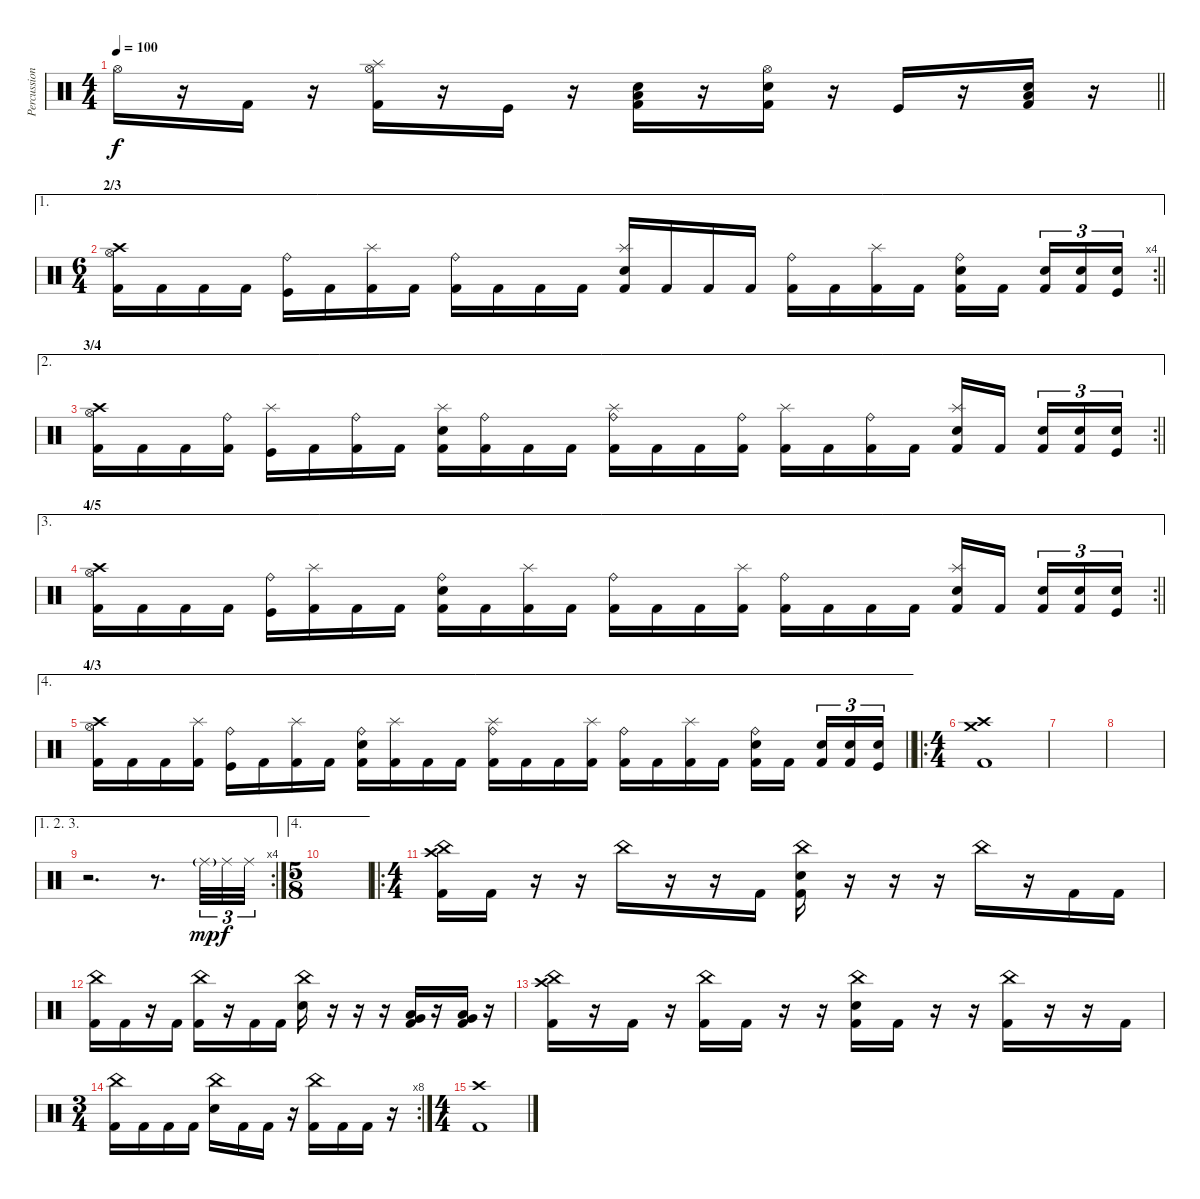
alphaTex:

\track ("Percussion" "Percussion") {mute instrument percussion}
\staff {score}
\articulation defaults
\ts (4 4)
\tempo 100
\clef neutral
\barLineRight lightlight
\ks c "Hi-Hat (open)".16{dy f}
r.16 "Kick (hit) 2".16 r.16 ("Hi-Hat (open)" "Splash (hit)" "Kick (hit) 2").16 r.16 "Kick (hit)".16 r.16 ("Low Floor Tom (hit)" "Electric Snare (hit)" "Kick (hit) 2").16 r.16 ("Hi-Hat (open)" "Electric Snare (hit)" "Kick (hit) 2").16 r.16 "Kick (hit)".16 r.16 ("Low Floor Tom (hit)" "Electric Snare (hit)" "Kick (hit) 2").16 r.16 |
\ae 1
\rc 4
\ts (6 4)
\section ("" "2/3")
\barLineRight lightlight
("Hi-Hat (open)" "Crash high (hit)" "Kick (hit) 2").16 "Kick (hit) 2".16 "Kick (hit) 2".16 "Kick (hit) 2".16 ("Ride (bell)" "Kick (hit)").16 "Kick (hit) 2".16 ("Splash (hit)" "Kick (hit) 2").16 "Kick (hit) 2".16 ("Ride (bell)" "Kick (hit) 2").16 "Kick (hit) 2".16 "Kick (hit) 2".16 "Kick (hit) 2".16 ("Splash (hit)" "Electric Snare (hit)" "Kick (hit) 2").16 "Kick (hit) 2".16 "Kick (hit) 2".16 "Kick (hit) 2".16 ("Ride (bell)" "Kick (hit) 2").16 "Kick (hit) 2".16 ("Splash (hit)" "Kick (hit) 2").16 "Kick (hit) 2".16 ("Ride (bell)" "Electric Snare (hit)" "Kick (hit) 2").16 "Kick (hit) 2".16{beam splitsecondary} ("Electric Snare (hit)" "Kick (hit) 2").16{tu (3 2)} ("Electric Snare (hit)" "Kick (hit) 2").16{tu (3 2)} ("Electric Snare (hit)" "Kick (hit)").16{tu (3 2)} |
\ae 2
\rc 2
\section ("" "3/4")
\barLineRight lightlight
("Hi-Hat (open)" "Crash high (hit)" "Kick (hit) 2").16 "Kick (hit) 2".16 "Kick (hit) 2".16 ("Ride (bell)" "Kick (hit) 2").16 ("Splash (hit)" "Kick (hit)").16 "Kick (hit) 2".16 ("Ride (bell)" "Kick (hit) 2").16 "Kick (hit) 2".16 ("Splash (hit)" "Electric Snare (hit)" "Kick (hit) 2").16 ("Ride (bell)" "Kick (hit) 2").16 "Kick (hit) 2".16 "Kick (hit) 2".16 ("Splash (hit)" "Ride (bell)" "Kick (hit) 2").16 "Kick (hit) 2".16 "Kick (hit) 2".16 ("Ride (bell)" "Kick (hit) 2").16 ("Splash (hit)" "Kick (hit) 2").16 "Kick (hit) 2".16 ("Ride (bell)" "Kick (hit) 2").16 "Kick (hit) 2".16 ("Splash (hit)" "Electric Snare (hit)" "Kick (hit) 2").16 "Kick (hit) 2".16{beam splitsecondary} ("Electric Snare (hit)" "Kick (hit) 2").16{tu (3 2)} ("Electric Snare (hit)" "Kick (hit) 2").16{tu (3 2)} ("Electric Snare (hit)" "Kick (hit)").16{tu (3 2)} |
\ae 3
\rc 2
\section ("" "4/5")
\barLineRight lightlight
("Hi-Hat (open)" "Crash high (hit)" "Kick (hit) 2").16 "Kick (hit) 2".16 "Kick (hit) 2".16 "Kick (hit) 2".16 ("Ride (bell)" "Kick (hit)").16 ("Splash (hit)" "Kick (hit) 2").16 "Kick (hit) 2".16 "Kick (hit) 2".16 ("Ride (bell)" "Electric Snare (hit)" "Kick (hit) 2").16 "Kick (hit) 2".16 ("Splash (hit)" "Kick (hit) 2").16 "Kick (hit) 2".16 ("Ride (bell)" "Kick (hit) 2").16 "Kick (hit) 2".16 "Kick (hit) 2".16 ("Splash (hit)" "Kick (hit) 2").16 ("Ride (bell)" "Kick (hit) 2").16 "Kick (hit) 2".16 "Kick (hit) 2".16 "Kick (hit) 2".16 ("Splash (hit)" "Electric Snare (hit)" "Kick (hit) 2").16 "Kick (hit) 2".16{beam splitsecondary} ("Electric Snare (hit)" "Kick (hit) 2").16{tu (3 2)} ("Electric Snare (hit)" "Kick (hit) 2").16{tu (3 2)} ("Electric Snare (hit)" "Kick (hit)").16{tu (3 2)} |
\ae 4
\section ("" "4/3")
\barLineRight lightlight
("Hi-Hat (open)" "Crash high (hit)" "Kick (hit) 2").16 "Kick (hit) 2".16 "Kick (hit) 2".16 ("Splash (hit)" "Kick (hit) 2").16 ("Ride (bell)" "Kick (hit)").16 "Kick (hit) 2".16 ("Splash (hit)" "Kick (hit) 2").16 "Kick (hit) 2".16 ("Ride (bell)" "Electric Snare (hit)" "Kick (hit) 2").16 ("Splash (hit)" "Kick (hit) 2").16 "Kick (hit) 2".16 "Kick (hit) 2".16 ("Splash (hit)" "Ride (bell)" "Kick (hit) 2").16 "Kick (hit) 2".16 "Kick (hit) 2".16 ("Splash (hit)" "Kick (hit) 2").16 ("Ride (bell)" "Kick (hit) 2").16 "Kick (hit) 2".16 ("Splash (hit)" "Kick (hit) 2").16 "Kick (hit) 2".16 ("Ride (bell)" "Electric Snare (hit)" "Kick (hit) 2").16 "Kick (hit) 2".16{beam splitsecondary} ("Electric Snare (hit)" "Kick (hit) 2").16{tu (3 2)} ("Electric Snare (hit)" "Kick (hit) 2").16{tu (3 2)} ("Electric Snare (hit)" "Kick (hit)").16{tu (3 2)} |
\ro
\ts (4 4)
("Crash high (hit)" "Crash medium (hit)" "Kick (hit) 2").1 |
|
|
\ae (1 2 3)
\rc 4
r.2{d} r.8{d} "Ride (middle)"{g}.32{tu (3 2) dy mp} "Ride (middle)".32{tu (3 2) dy f} "Ride (middle)".32{tu (3 2)} |
\ae 4
\ts (5 8)
|
\ro
\ts (4 4)
("China (hit)" "Crash high (hit)" "Kick (hit) 2").16 "Kick (hit) 2".16 r.16 r.16 "China (hit)".16 r.16 r.16 "Kick (hit) 2".16 ("China (hit)" "Electric Snare (hit)" "Kick (hit) 2").16 r.16 r.16 r.16 "China (hit)".16 r.16 "Kick (hit) 2".16 "Kick (hit) 2".16 |
("China (hit)" "Kick (hit) 2").16 "Kick (hit) 2".16 r.16 "Kick (hit) 2".16 ("China (hit)" "Kick (hit) 2").16 r.16 "Kick (hit) 2".16 "Kick (hit) 2".16 ("China (hit)" "Electric Snare (hit)").16 r.16 r.16 r.16 ("Very Low Tom (hit)" "Low Tom (hit)" "Kick (hit) 2").16 r.16 ("Very Low Tom (hit)" "Low Tom (hit)" "Kick (hit) 2").16 r.16 |
("China (hit)" "Crash high (hit)" "Kick (hit) 2").16 r.16 "Kick (hit) 2".16 r.16 ("China (hit)" "Kick (hit) 2").16 "Kick (hit) 2".16 r.16 r.16 ("China (hit)" "Electric Snare (hit)" "Kick (hit) 2").16 "Kick (hit) 2".16 r.16 r.16 ("China (hit)" "Kick (hit) 2").16 r.16 r.16 "Kick (hit) 2".16 |
\rc 8
\ts (3 4)
("China (hit)" "Kick (hit) 2").16 "Kick (hit) 2".16 "Kick (hit) 2".16 "Kick (hit) 2".16 ("China (hit)" "Electric Snare (hit)").16 "Kick (hit) 2".16 "Kick (hit) 2".16 r.16 ("China (hit)" "Kick (hit) 2").16 "Kick (hit) 2".16 "Kick (hit) 2".16 r.16 |
\ts (4 4)
("Crash high (hit)" "Kick (hit) 2").1
